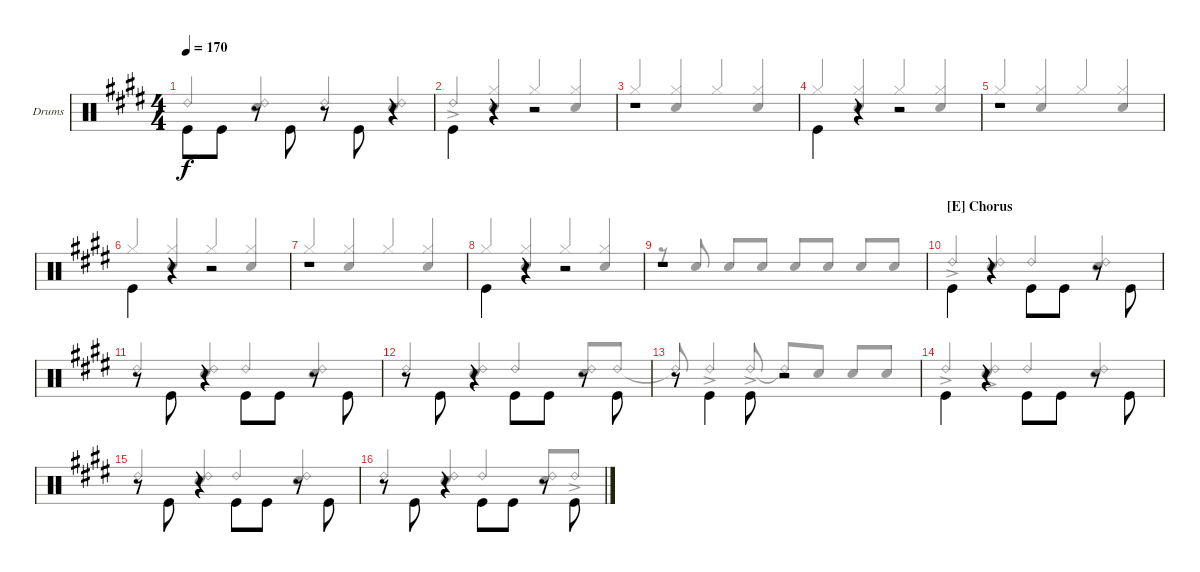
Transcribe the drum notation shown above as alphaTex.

\bracketExtendMode groupsimilarinstruments
\firstSystemTrackNameOrientation horizontal
\otherSystemsTrackNameOrientation horizontal
\track ("Drums" "Drums") {instrument percussion}
\staff {score}
\articulation defaults
\voice
\ts (4 4)
\tempo 170
\clef neutral
\scale
1.06557
\ks e "Kick (hit)".8{dy f beam invert} "Kick (hit)".8
r.8{beam invert} "Kick (hit)".8{beam invert} r.8{beam invert} "Kick (hit)".8{beam invert} r.4{beam invert} |
\scale
0.934426 "Kick (hit)".4{beam invert} r.4 r.2 |
\scale
1.06557 r.1 |
\scale
0.934426 "Kick (hit)".4{beam invert} r.4 r.2 |
\scale
1.06557 r.1 |
\scale
0.934426 "Kick (hit)".4{beam invert} r.4 r.2 |
\scale
1.06557 r.1 |
\scale
0.934426 "Kick (hit)".4{beam invert} r.4 r.2 |
\scale
1.06557 r.1 |
\section ("E" "Chorus")
\scale
0.934426 "Kick (hit)".4{beam invert} r.4{beam invert} "Kick (hit)".8{beam invert} "Kick (hit)".8 r.8 "Kick (hit)".8{beam invert} |
\scale
1.06557 r.8 "Kick (hit)".8{beam invert} r.4 "Kick (hit)".8{beam invert} "Kick (hit)".8 r.8 "Kick (hit)".8{beam invert} |
\scale
0.934426 r.8 "Kick (hit)".8{beam invert} r.4 "Kick (hit)".8{beam invert} "Kick (hit)".8 r.8 "Kick (hit)".8{beam invert} |
\scale
1.06557 r.8 "Kick (hit)".4{beam invert} "Kick (hit)".8{beam invert} r.2 |
\scale
0.934426 "Kick (hit)".4{beam invert} r.4{beam invert} "Kick (hit)".8{beam invert} "Kick (hit)".8 r.8 "Kick (hit)".8{beam invert} |
\scale
1.06557 r.8 "Kick (hit)".8{beam invert} r.4 "Kick (hit)".8{beam invert} "Kick (hit)".8 r.8 "Kick (hit)".8{beam invert} |
\scale
0.934426 r.8 "Kick (hit)".8{beam invert} r.4 "Kick (hit)".8{beam invert} "Kick (hit)".8 r.8 "Kick (hit)".8{beam invert}
\voice
\clef neutral
\ottava regular
\simile none
\scale
1.06557
\ks e "Ride (bell) 2".4{dy f beam invert}
("Ride (bell) 2" "Snare (hit) 2").4{beam invert} "Ride (bell) 2".4{beam invert} ("Ride (bell) 2" "Snare (hit) 2").4{beam invert} |
\scale
0.934426 "Ride (bell) 2"{ac}.4{beam invert} ("Snare (hit) 2" "Hi-Hat (closed)").4{beam invert} "Hi-Hat (closed)".4{beam invert} ("Snare (hit) 2" "Hi-Hat (closed)").4{beam invert} |
\scale
1.06557 "Hi-Hat (closed)".4{beam invert} ("Snare (hit) 2" "Hi-Hat (closed)").4{beam invert} "Hi-Hat (closed)".4{beam invert} ("Snare (hit) 2" "Hi-Hat (closed)").4{beam invert} |
\scale
0.934426 "Hi-Hat (closed)".4{beam invert} ("Snare (hit) 2" "Hi-Hat (closed)").4{beam invert} "Hi-Hat (closed)".4{beam invert} ("Snare (hit) 2" "Hi-Hat (closed)").4{beam invert} |
\scale
1.06557 "Hi-Hat (closed)".4{beam invert} ("Snare (hit) 2" "Hi-Hat (closed)").4{beam invert} "Hi-Hat (closed)".4{beam invert} ("Snare (hit) 2" "Hi-Hat (closed)").4{beam invert} |
\scale
0.934426 "Hi-Hat (closed)".4{beam invert} ("Snare (hit) 2" "Hi-Hat (closed)").4{beam invert} "Hi-Hat (closed)".4{beam invert} ("Snare (hit) 2" "Hi-Hat (closed)").4{beam invert} |
\scale
1.06557 "Hi-Hat (closed)".4{beam invert} ("Snare (hit) 2" "Hi-Hat (closed)").4{beam invert} "Hi-Hat (closed)".4{beam invert} ("Snare (hit) 2" "Hi-Hat (closed)").4{beam invert} |
\scale
0.934426 "Hi-Hat (closed)".4{beam invert} ("Snare (hit) 2" "Hi-Hat (closed)").4{beam invert} "Hi-Hat (closed)".4{beam invert} ("Snare (hit) 2" "Hi-Hat (closed)").4{beam invert} |
\scale
1.06557 r.8 "Snare (hit) 2".8{beam invert} "Snare (hit) 2".8{beam invert} "Snare (hit) 2".8 "Snare (hit) 2".8{beam invert} "Snare (hit) 2".8 "Snare (hit) 2".8{beam invert} "Snare (hit) 2".8 |
\scale
0.934426 "Ride (bell) 2"{ac}.4{beam invert} ("Ride (bell) 2" "Snare (hit) 2").4{beam invert} "Ride (bell) 2".4{beam invert} ("Ride (bell) 2" "Snare (hit) 2").4{beam invert} |
\scale
1.06557 "Ride (bell) 2".4{beam invert} ("Ride (bell) 2" "Snare (hit) 2").4{beam invert} "Ride (bell) 2".4{beam invert} ("Ride (bell) 2" "Snare (hit) 2").4{beam invert} |
\scale
0.934426 "Ride (bell) 2".4{beam invert} ("Ride (bell) 2" "Snare (hit) 2").4{beam invert} "Ride (bell) 2".4{beam invert} ("Ride (bell) 2" "Snare (hit) 2").8{beam invert} "Ride (bell) 2".8 |
\scale
1.06557 "Ride (bell) 2"{t}.8{beam invert} "Ride (bell) 2"{ac}.4{beam invert} "Ride (bell) 2"{ac}.8{beam invert} "Ride (bell) 2"{t}.8{beam invert} "Snare (hit) 2".8 "Snare (hit) 2".8{beam invert} "Snare (hit) 2".8 |
\scale
0.934426 "Ride (bell) 2"{ac}.4{beam invert} ("Ride (bell) 2"{ac} "Snare (hit) 2"{ac}).4{beam invert} "Ride (bell) 2".4{beam invert} ("Ride (bell) 2" "Snare (hit) 2").4{beam invert} |
\scale
1.06557 "Ride (bell) 2".4{beam invert} ("Ride (bell) 2" "Snare (hit) 2").4{beam invert} "Ride (bell) 2".4{beam invert} ("Ride (bell) 2" "Snare (hit) 2").4{beam invert} |
\scale
0.934426 "Ride (bell) 2".4{beam invert} ("Ride (bell) 2" "Snare (hit) 2").4{beam invert} "Ride (bell) 2".4{beam invert} ("Ride (bell) 2" "Snare (hit) 2").8{beam invert} "Ride (bell) 2"{ac}.8
